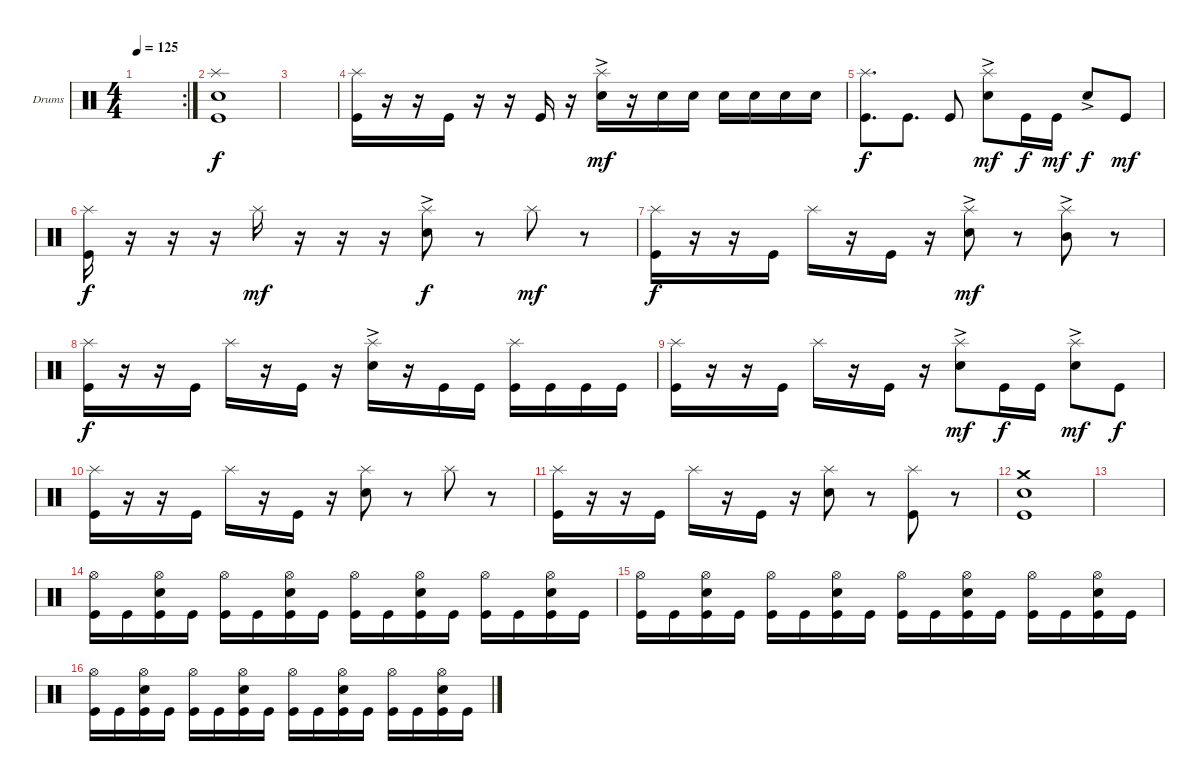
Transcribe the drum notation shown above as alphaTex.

\defaultSystemsLayout 4
\bracketExtendMode groupsimilarinstruments
\firstSystemTrackNameOrientation horizontal
\otherSystemsTrackNameOrientation horizontal
\track ("Drumkit" "Drums") {instrument percussion}
\staff {score}
\articulation defaults
\rc 2
\ts (4 4)
\tempo 125
\clef neutral
\ks c
|
("Kick (hit)" "Snare (hit) 2" "Splash (hit)").1 |
|
("Kick (hit)" "Splash (hit)").16{dy f} r.16 r.16 "Kick (hit)".16 r.16 r.16 "Kick (hit)".16 r.16 ("Snare (hit) 2"{ac} "Splash (hit)").16{dy mf} r.16 "Snare (hit) 2".16 "Snare (hit) 2".16 "Snare (hit) 2".16 "Snare (hit) 2".16 "Snare (hit) 2".16 "Snare (hit) 2".16 |
("Kick (hit)" "Splash (hit)").8{d dy f} "Kick (hit)".8{d} "Kick (hit)".8 ("Snare (hit) 2"{ac} "Splash (hit)").8{dy mf} "Kick (hit)".16{dy f} "Kick (hit)".16{dy mf} "Snare (hit) 2"{ac}.8{dy f} "Kick (hit)".8{dy mf} |
("Kick (hit)" "Splash (hit)").16{dy f} r.16 r.16 r.16 "Splash (hit)".16{dy mf} r.16 r.16 r.16 ("Snare (hit) 2"{ac} "Splash (hit)").8{dy f} r.8 "Splash (hit)".8{dy mf} r.8 |
("Kick (hit)" "Splash (hit)").16{dy f} r.16 r.16 "Kick (hit)".16 "Splash (hit)".16 r.16 "Kick (hit)".16 r.16 ("Snare (hit) 2"{ac} "Splash (hit)").8{dy mf} r.8 ("Splash (hit)" "Mid Tom (hit)"{ac}).8 r.8 |
("Kick (hit)" "Splash (hit)").16{dy f} r.16 r.16 "Kick (hit)".16 "Splash (hit)".16 r.16 "Kick (hit)".16 r.16 ("Snare (hit) 2"{ac} "Splash (hit)").16 r.16 "Kick (hit)".16 "Kick (hit)".16 ("Kick (hit)" "Splash (hit)").16 "Kick (hit)".16 "Kick (hit)".16 "Kick (hit)".16 |
("Kick (hit)" "Splash (hit)").16 r.16 r.16 "Kick (hit)".16 "Splash (hit)".16 r.16 "Kick (hit)".16 r.16 ("Snare (hit) 2"{ac} "Splash (hit)").8{dy mf} "Kick (hit)".16{dy f} "Kick (hit)".16 ("Snare (hit) 2"{ac} "Splash (hit)").8{dy mf} "Kick (hit)".8{dy f} |
\scale
0.452632 ("Kick (hit)" "Splash (hit)").16 r.16 r.16 "Kick (hit)".16 "Splash (hit)".16 r.16 "Kick (hit)".16 r.16 ("Snare (hit) 2" "Splash (hit)").8 r.8 "Splash (hit)".8 r.8 |
\scale
0.404515 ("Kick (hit)" "Splash (hit)").16 r.16 r.16 "Kick (hit)".16 "Splash (hit)".16 r.16 "Kick (hit)".16 r.16 ("Snare (hit) 2" "Splash (hit)").8 r.8 ("Splash (hit)" "Kick (hit)").8 r.8 |
\scale
0.142925 ("Kick (hit)" "Snare (hit) 2" "Crash medium (hit)").1 |
|
("Kick (hit)" "Hi-Hat (open)").16 "Kick (hit)".16 ("Kick (hit)" "Snare (hit) 2" "Hi-Hat (open)").16 "Kick (hit)".16 ("Kick (hit)" "Hi-Hat (open)").16 "Kick (hit)".16 ("Kick (hit)" "Snare (hit) 2" "Hi-Hat (open)").16 "Kick (hit)".16 ("Kick (hit)" "Hi-Hat (open)").16 "Kick (hit)".16 ("Kick (hit)" "Snare (hit) 2" "Hi-Hat (open)").16 "Kick (hit)".16 ("Kick (hit)" "Hi-Hat (open)").16 "Kick (hit)".16 ("Kick (hit)" "Snare (hit) 2" "Hi-Hat (open)").16 "Kick (hit)".16 |
("Kick (hit)" "Hi-Hat (open)").16 "Kick (hit)".16 ("Kick (hit)" "Snare (hit) 2" "Hi-Hat (open)").16 "Kick (hit)".16 ("Kick (hit)" "Hi-Hat (open)").16 "Kick (hit)".16 ("Kick (hit)" "Snare (hit) 2" "Hi-Hat (open)").16 "Kick (hit)".16 ("Kick (hit)" "Hi-Hat (open)").16 "Kick (hit)".16 ("Kick (hit)" "Snare (hit) 2" "Hi-Hat (open)").16 "Kick (hit)".16 ("Kick (hit)" "Hi-Hat (open)").16 "Kick (hit)".16 ("Kick (hit)" "Snare (hit) 2" "Hi-Hat (open)").16 "Kick (hit)".16 |
("Kick (hit)" "Hi-Hat (open)").16 "Kick (hit)".16 ("Kick (hit)" "Snare (hit) 2" "Hi-Hat (open)").16 "Kick (hit)".16 ("Kick (hit)" "Hi-Hat (open)").16 "Kick (hit)".16 ("Kick (hit)" "Snare (hit) 2" "Hi-Hat (open)").16 "Kick (hit)".16 ("Kick (hit)" "Hi-Hat (open)").16 "Kick (hit)".16 ("Kick (hit)" "Snare (hit) 2" "Hi-Hat (open)").16 "Kick (hit)".16 ("Kick (hit)" "Hi-Hat (open)").16 "Kick (hit)".16 ("Kick (hit)" "Snare (hit) 2" "Hi-Hat (open)").16 "Kick (hit)".16
